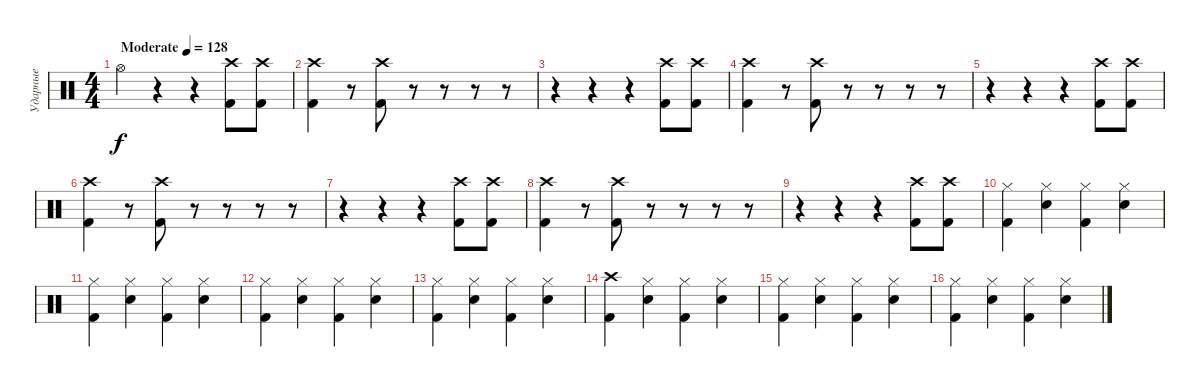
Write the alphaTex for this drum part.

\track ("Ударные" "Ударные") {instrument percussion}
\staff {score}
\articulation defaults
\ts (4 4)
\tempo (128 "Moderate")
\clef neutral
\ks c "Hi-Hat (open)".4{dy f}
r.4 r.4 ("Kick (hit) 2" "Crash high (hit)").8 ("Kick (hit) 2" "Crash high (hit)").8 |
("Kick (hit) 2" "Crash high (hit)").4 r.8 ("Kick (hit) 2" "Crash high (hit)").8 r.8 r.8 r.8 r.8 |
r.4 r.4 r.4 ("Kick (hit) 2" "Crash high (hit)").8 ("Kick (hit) 2" "Crash high (hit)").8 |
("Kick (hit) 2" "Crash high (hit)").4 r.8 ("Kick (hit) 2" "Crash high (hit)").8 r.8 r.8 r.8 r.8 |
r.4 r.4 r.4 ("Kick (hit) 2" "Crash high (hit)").8 ("Kick (hit) 2" "Crash high (hit)").8 |
("Kick (hit) 2" "Crash high (hit)").4 r.8 ("Kick (hit) 2" "Crash high (hit)").8 r.8 r.8 r.8 r.8 |
r.4 r.4 r.4 ("Kick (hit) 2" "Crash high (hit)").8 ("Kick (hit) 2" "Crash high (hit)").8 |
("Kick (hit) 2" "Crash high (hit)").4 r.8 ("Kick (hit) 2" "Crash high (hit)").8 r.8 r.8 r.8 r.8 |
r.4 r.4 r.4 ("Kick (hit) 2" "Crash high (hit)").8 ("Kick (hit) 2" "Crash high (hit)").8 |
("Hi-Hat (closed)" "Kick (hit) 2").4 ("Hi-Hat (closed)" "Electric Snare (hit)").4 ("Hi-Hat (closed)" "Kick (hit) 2").4 ("Hi-Hat (closed)" "Electric Snare (hit)").4 |
("Hi-Hat (closed)" "Kick (hit) 2").4 ("Hi-Hat (closed)" "Electric Snare (hit)").4 ("Hi-Hat (closed)" "Kick (hit) 2").4 ("Hi-Hat (closed)" "Electric Snare (hit)").4 |
("Hi-Hat (closed)" "Kick (hit) 2").4 ("Hi-Hat (closed)" "Electric Snare (hit)").4 ("Hi-Hat (closed)" "Kick (hit) 2").4 ("Hi-Hat (closed)" "Electric Snare (hit)").4 |
("Hi-Hat (closed)" "Kick (hit) 2").4 ("Hi-Hat (closed)" "Electric Snare (hit)").4 ("Hi-Hat (closed)" "Kick (hit) 2").4 ("Hi-Hat (closed)" "Electric Snare (hit)").4 |
("Crash high (hit)" "Kick (hit) 2").4 ("Hi-Hat (closed)" "Electric Snare (hit)").4 ("Hi-Hat (closed)" "Kick (hit) 2").4 ("Hi-Hat (closed)" "Electric Snare (hit)").4 |
("Hi-Hat (closed)" "Kick (hit) 2").4 ("Hi-Hat (closed)" "Electric Snare (hit)").4 ("Hi-Hat (closed)" "Kick (hit) 2").4 ("Hi-Hat (closed)" "Electric Snare (hit)").4 |
("Hi-Hat (closed)" "Kick (hit) 2").4 ("Hi-Hat (closed)" "Electric Snare (hit)").4 ("Hi-Hat (closed)" "Kick (hit) 2").4 ("Hi-Hat (closed)" "Electric Snare (hit)").4
